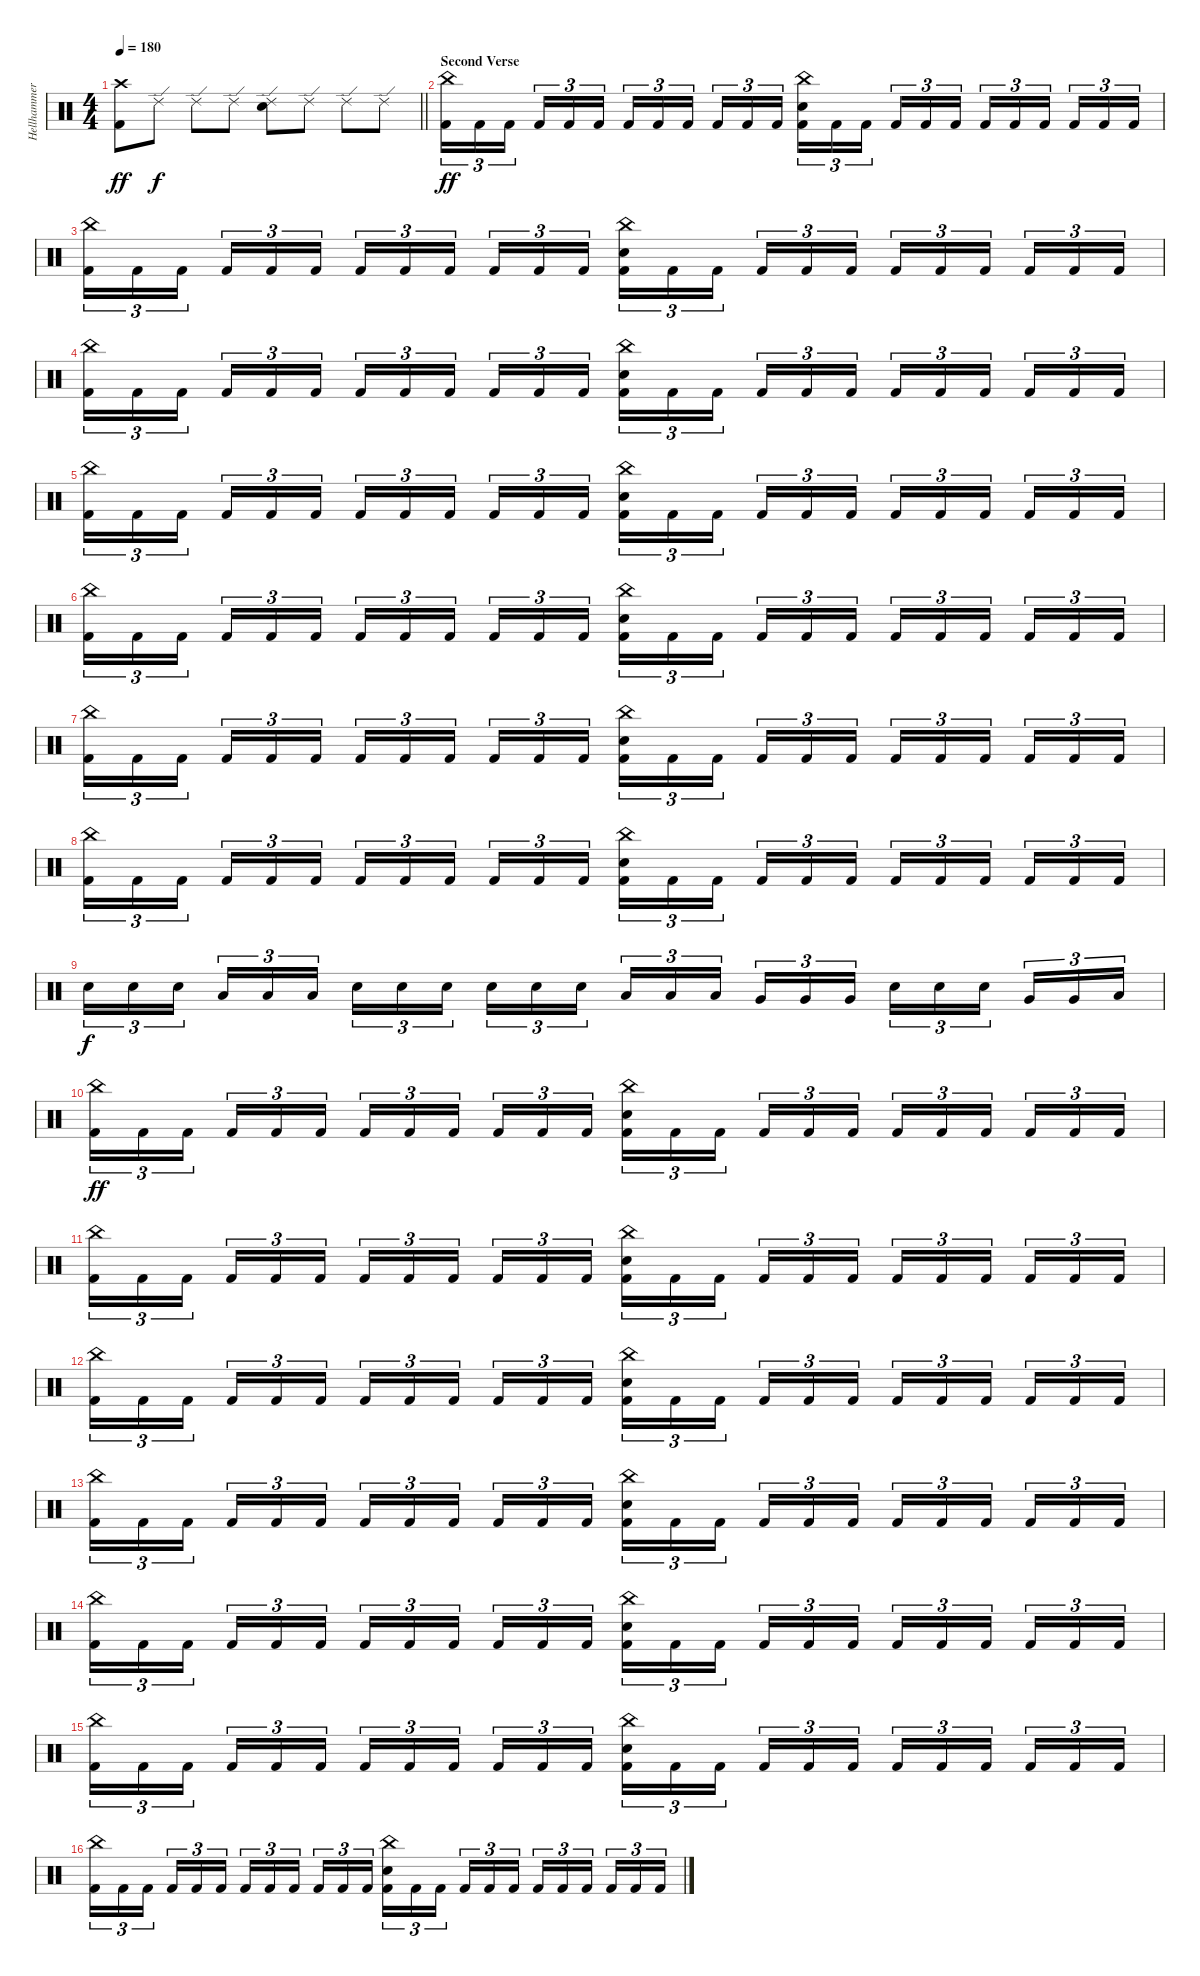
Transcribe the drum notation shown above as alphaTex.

\track ("Hellhammer" "Hellhammer") {instrument percussion}
\staff {score}
\articulation defaults
\ts (4 4)
\tempo 180
\clef neutral
\barLineRight lightlight
\ks c
("Crash high (hit)" "Kick (hit) 2").8{dy ff} "Ride (edge) 2".8{dy f} "Ride (edge) 2".8 "Ride (edge) 2".8 ("Ride (edge) 2" "Electric Snare (hit)").8 "Ride (edge) 2".8 "Ride (edge) 2".8 "Ride (edge) 2".8 |
\section ("" "Second Verse")
("China (hit)" "Kick (hit) 2").16{tu (3 2) dy ff} "Kick (hit) 2".16{tu (3 2)} "Kick (hit) 2".16{tu (3 2) beam splitsecondary} "Kick (hit) 2".16{tu (3 2)} "Kick (hit) 2".16{tu (3 2)} "Kick (hit) 2".16{tu (3 2)} "Kick (hit) 2".16{tu (3 2)} "Kick (hit) 2".16{tu (3 2)} "Kick (hit) 2".16{tu (3 2) beam splitsecondary} "Kick (hit) 2".16{tu (3 2)} "Kick (hit) 2".16{tu (3 2)} "Kick (hit) 2".16{tu (3 2)} ("China (hit)" "Electric Snare (hit)" "Kick (hit) 2").16{tu (3 2)} "Kick (hit) 2".16{tu (3 2)} "Kick (hit) 2".16{tu (3 2) beam splitsecondary} "Kick (hit) 2".16{tu (3 2)} "Kick (hit) 2".16{tu (3 2)} "Kick (hit) 2".16{tu (3 2)} "Kick (hit) 2".16{tu (3 2)} "Kick (hit) 2".16{tu (3 2)} "Kick (hit) 2".16{tu (3 2) beam splitsecondary} "Kick (hit) 2".16{tu (3 2)} "Kick (hit) 2".16{tu (3 2)} "Kick (hit) 2".16{tu (3 2)} |
("China (hit)" "Kick (hit) 2").16{tu (3 2)} "Kick (hit) 2".16{tu (3 2)} "Kick (hit) 2".16{tu (3 2) beam splitsecondary} "Kick (hit) 2".16{tu (3 2)} "Kick (hit) 2".16{tu (3 2)} "Kick (hit) 2".16{tu (3 2)} "Kick (hit) 2".16{tu (3 2)} "Kick (hit) 2".16{tu (3 2)} "Kick (hit) 2".16{tu (3 2) beam splitsecondary} "Kick (hit) 2".16{tu (3 2)} "Kick (hit) 2".16{tu (3 2)} "Kick (hit) 2".16{tu (3 2)} ("China (hit)" "Electric Snare (hit)" "Kick (hit) 2").16{tu (3 2)} "Kick (hit) 2".16{tu (3 2)} "Kick (hit) 2".16{tu (3 2) beam splitsecondary} "Kick (hit) 2".16{tu (3 2)} "Kick (hit) 2".16{tu (3 2)} "Kick (hit) 2".16{tu (3 2)} "Kick (hit) 2".16{tu (3 2)} "Kick (hit) 2".16{tu (3 2)} "Kick (hit) 2".16{tu (3 2) beam splitsecondary} "Kick (hit) 2".16{tu (3 2)} "Kick (hit) 2".16{tu (3 2)} "Kick (hit) 2".16{tu (3 2)} |
("China (hit)" "Kick (hit) 2").16{tu (3 2)} "Kick (hit) 2".16{tu (3 2)} "Kick (hit) 2".16{tu (3 2) beam splitsecondary} "Kick (hit) 2".16{tu (3 2)} "Kick (hit) 2".16{tu (3 2)} "Kick (hit) 2".16{tu (3 2)} "Kick (hit) 2".16{tu (3 2)} "Kick (hit) 2".16{tu (3 2)} "Kick (hit) 2".16{tu (3 2) beam splitsecondary} "Kick (hit) 2".16{tu (3 2)} "Kick (hit) 2".16{tu (3 2)} "Kick (hit) 2".16{tu (3 2)} ("China (hit)" "Electric Snare (hit)" "Kick (hit) 2").16{tu (3 2)} "Kick (hit) 2".16{tu (3 2)} "Kick (hit) 2".16{tu (3 2) beam splitsecondary} "Kick (hit) 2".16{tu (3 2)} "Kick (hit) 2".16{tu (3 2)} "Kick (hit) 2".16{tu (3 2)} "Kick (hit) 2".16{tu (3 2)} "Kick (hit) 2".16{tu (3 2)} "Kick (hit) 2".16{tu (3 2) beam splitsecondary} "Kick (hit) 2".16{tu (3 2)} "Kick (hit) 2".16{tu (3 2)} "Kick (hit) 2".16{tu (3 2)} |
("China (hit)" "Kick (hit) 2").16{tu (3 2)} "Kick (hit) 2".16{tu (3 2)} "Kick (hit) 2".16{tu (3 2) beam splitsecondary} "Kick (hit) 2".16{tu (3 2)} "Kick (hit) 2".16{tu (3 2)} "Kick (hit) 2".16{tu (3 2)} "Kick (hit) 2".16{tu (3 2)} "Kick (hit) 2".16{tu (3 2)} "Kick (hit) 2".16{tu (3 2) beam splitsecondary} "Kick (hit) 2".16{tu (3 2)} "Kick (hit) 2".16{tu (3 2)} "Kick (hit) 2".16{tu (3 2)} ("China (hit)" "Electric Snare (hit)" "Kick (hit) 2").16{tu (3 2)} "Kick (hit) 2".16{tu (3 2)} "Kick (hit) 2".16{tu (3 2) beam splitsecondary} "Kick (hit) 2".16{tu (3 2)} "Kick (hit) 2".16{tu (3 2)} "Kick (hit) 2".16{tu (3 2)} "Kick (hit) 2".16{tu (3 2)} "Kick (hit) 2".16{tu (3 2)} "Kick (hit) 2".16{tu (3 2) beam splitsecondary} "Kick (hit) 2".16{tu (3 2)} "Kick (hit) 2".16{tu (3 2)} "Kick (hit) 2".16{tu (3 2)} |
("China (hit)" "Kick (hit) 2").16{tu (3 2)} "Kick (hit) 2".16{tu (3 2)} "Kick (hit) 2".16{tu (3 2) beam splitsecondary} "Kick (hit) 2".16{tu (3 2)} "Kick (hit) 2".16{tu (3 2)} "Kick (hit) 2".16{tu (3 2)} "Kick (hit) 2".16{tu (3 2)} "Kick (hit) 2".16{tu (3 2)} "Kick (hit) 2".16{tu (3 2) beam splitsecondary} "Kick (hit) 2".16{tu (3 2)} "Kick (hit) 2".16{tu (3 2)} "Kick (hit) 2".16{tu (3 2)} ("China (hit)" "Electric Snare (hit)" "Kick (hit) 2").16{tu (3 2)} "Kick (hit) 2".16{tu (3 2)} "Kick (hit) 2".16{tu (3 2) beam splitsecondary} "Kick (hit) 2".16{tu (3 2)} "Kick (hit) 2".16{tu (3 2)} "Kick (hit) 2".16{tu (3 2)} "Kick (hit) 2".16{tu (3 2)} "Kick (hit) 2".16{tu (3 2)} "Kick (hit) 2".16{tu (3 2) beam splitsecondary} "Kick (hit) 2".16{tu (3 2)} "Kick (hit) 2".16{tu (3 2)} "Kick (hit) 2".16{tu (3 2)} |
("China (hit)" "Kick (hit) 2").16{tu (3 2)} "Kick (hit) 2".16{tu (3 2)} "Kick (hit) 2".16{tu (3 2) beam splitsecondary} "Kick (hit) 2".16{tu (3 2)} "Kick (hit) 2".16{tu (3 2)} "Kick (hit) 2".16{tu (3 2)} "Kick (hit) 2".16{tu (3 2)} "Kick (hit) 2".16{tu (3 2)} "Kick (hit) 2".16{tu (3 2) beam splitsecondary} "Kick (hit) 2".16{tu (3 2)} "Kick (hit) 2".16{tu (3 2)} "Kick (hit) 2".16{tu (3 2)} ("China (hit)" "Electric Snare (hit)" "Kick (hit) 2").16{tu (3 2)} "Kick (hit) 2".16{tu (3 2)} "Kick (hit) 2".16{tu (3 2) beam splitsecondary} "Kick (hit) 2".16{tu (3 2)} "Kick (hit) 2".16{tu (3 2)} "Kick (hit) 2".16{tu (3 2)} "Kick (hit) 2".16{tu (3 2)} "Kick (hit) 2".16{tu (3 2)} "Kick (hit) 2".16{tu (3 2) beam splitsecondary} "Kick (hit) 2".16{tu (3 2)} "Kick (hit) 2".16{tu (3 2)} "Kick (hit) 2".16{tu (3 2)} |
("China (hit)" "Kick (hit) 2").16{tu (3 2)} "Kick (hit) 2".16{tu (3 2)} "Kick (hit) 2".16{tu (3 2) beam splitsecondary} "Kick (hit) 2".16{tu (3 2)} "Kick (hit) 2".16{tu (3 2)} "Kick (hit) 2".16{tu (3 2)} "Kick (hit) 2".16{tu (3 2)} "Kick (hit) 2".16{tu (3 2)} "Kick (hit) 2".16{tu (3 2) beam splitsecondary} "Kick (hit) 2".16{tu (3 2)} "Kick (hit) 2".16{tu (3 2)} "Kick (hit) 2".16{tu (3 2)} ("China (hit)" "Electric Snare (hit)" "Kick (hit) 2").16{tu (3 2)} "Kick (hit) 2".16{tu (3 2)} "Kick (hit) 2".16{tu (3 2) beam splitsecondary} "Kick (hit) 2".16{tu (3 2)} "Kick (hit) 2".16{tu (3 2)} "Kick (hit) 2".16{tu (3 2)} "Kick (hit) 2".16{tu (3 2)} "Kick (hit) 2".16{tu (3 2)} "Kick (hit) 2".16{tu (3 2) beam splitsecondary} "Kick (hit) 2".16{tu (3 2)} "Kick (hit) 2".16{tu (3 2)} "Kick (hit) 2".16{tu (3 2)} |
"Electric Snare (hit)".16{tu (3 2) dy f} "Electric Snare (hit)".16{tu (3 2)} "Electric Snare (hit)".16{tu (3 2) beam splitsecondary} "Low Tom (hit)".16{tu (3 2)} "Low Tom (hit)".16{tu (3 2)} "Low Tom (hit)".16{tu (3 2)} "Electric Snare (hit)".16{tu (3 2)} "Electric Snare (hit)".16{tu (3 2)} "Electric Snare (hit)".16{tu (3 2) beam splitsecondary} "Electric Snare (hit)".16{tu (3 2)} "Electric Snare (hit)".16{tu (3 2)} "Electric Snare (hit)".16{tu (3 2)} "Low Tom (hit)".16{tu (3 2)} "Low Tom (hit)".16{tu (3 2)} "Low Tom (hit)".16{tu (3 2) beam splitsecondary} "Very Low Tom (hit)".16{tu (3 2)} "Very Low Tom (hit)".16{tu (3 2)} "Very Low Tom (hit)".16{tu (3 2)} "Electric Snare (hit)".16{tu (3 2)} "Electric Snare (hit)".16{tu (3 2)} "Electric Snare (hit)".16{tu (3 2) beam splitsecondary} "Very Low Tom (hit)".16{tu (3 2)} "Very Low Tom (hit)".16{tu (3 2)} "Low Floor Tom (hit)".16{tu (3 2)} |
("China (hit)" "Kick (hit) 2").16{tu (3 2) dy ff} "Kick (hit) 2".16{tu (3 2)} "Kick (hit) 2".16{tu (3 2) beam splitsecondary} "Kick (hit) 2".16{tu (3 2)} "Kick (hit) 2".16{tu (3 2)} "Kick (hit) 2".16{tu (3 2)} "Kick (hit) 2".16{tu (3 2)} "Kick (hit) 2".16{tu (3 2)} "Kick (hit) 2".16{tu (3 2) beam splitsecondary} "Kick (hit) 2".16{tu (3 2)} "Kick (hit) 2".16{tu (3 2)} "Kick (hit) 2".16{tu (3 2)} ("China (hit)" "Electric Snare (hit)" "Kick (hit) 2").16{tu (3 2)} "Kick (hit) 2".16{tu (3 2)} "Kick (hit) 2".16{tu (3 2) beam splitsecondary} "Kick (hit) 2".16{tu (3 2)} "Kick (hit) 2".16{tu (3 2)} "Kick (hit) 2".16{tu (3 2)} "Kick (hit) 2".16{tu (3 2)} "Kick (hit) 2".16{tu (3 2)} "Kick (hit) 2".16{tu (3 2) beam splitsecondary} "Kick (hit) 2".16{tu (3 2)} "Kick (hit) 2".16{tu (3 2)} "Kick (hit) 2".16{tu (3 2)} |
("China (hit)" "Kick (hit) 2").16{tu (3 2)} "Kick (hit) 2".16{tu (3 2)} "Kick (hit) 2".16{tu (3 2) beam splitsecondary} "Kick (hit) 2".16{tu (3 2)} "Kick (hit) 2".16{tu (3 2)} "Kick (hit) 2".16{tu (3 2)} "Kick (hit) 2".16{tu (3 2)} "Kick (hit) 2".16{tu (3 2)} "Kick (hit) 2".16{tu (3 2) beam splitsecondary} "Kick (hit) 2".16{tu (3 2)} "Kick (hit) 2".16{tu (3 2)} "Kick (hit) 2".16{tu (3 2)} ("China (hit)" "Electric Snare (hit)" "Kick (hit) 2").16{tu (3 2)} "Kick (hit) 2".16{tu (3 2)} "Kick (hit) 2".16{tu (3 2) beam splitsecondary} "Kick (hit) 2".16{tu (3 2)} "Kick (hit) 2".16{tu (3 2)} "Kick (hit) 2".16{tu (3 2)} "Kick (hit) 2".16{tu (3 2)} "Kick (hit) 2".16{tu (3 2)} "Kick (hit) 2".16{tu (3 2) beam splitsecondary} "Kick (hit) 2".16{tu (3 2)} "Kick (hit) 2".16{tu (3 2)} "Kick (hit) 2".16{tu (3 2)} |
("China (hit)" "Kick (hit) 2").16{tu (3 2)} "Kick (hit) 2".16{tu (3 2)} "Kick (hit) 2".16{tu (3 2) beam splitsecondary} "Kick (hit) 2".16{tu (3 2)} "Kick (hit) 2".16{tu (3 2)} "Kick (hit) 2".16{tu (3 2)} "Kick (hit) 2".16{tu (3 2)} "Kick (hit) 2".16{tu (3 2)} "Kick (hit) 2".16{tu (3 2) beam splitsecondary} "Kick (hit) 2".16{tu (3 2)} "Kick (hit) 2".16{tu (3 2)} "Kick (hit) 2".16{tu (3 2)} ("China (hit)" "Electric Snare (hit)" "Kick (hit) 2").16{tu (3 2)} "Kick (hit) 2".16{tu (3 2)} "Kick (hit) 2".16{tu (3 2) beam splitsecondary} "Kick (hit) 2".16{tu (3 2)} "Kick (hit) 2".16{tu (3 2)} "Kick (hit) 2".16{tu (3 2)} "Kick (hit) 2".16{tu (3 2)} "Kick (hit) 2".16{tu (3 2)} "Kick (hit) 2".16{tu (3 2) beam splitsecondary} "Kick (hit) 2".16{tu (3 2)} "Kick (hit) 2".16{tu (3 2)} "Kick (hit) 2".16{tu (3 2)} |
("China (hit)" "Kick (hit) 2").16{tu (3 2)} "Kick (hit) 2".16{tu (3 2)} "Kick (hit) 2".16{tu (3 2) beam splitsecondary} "Kick (hit) 2".16{tu (3 2)} "Kick (hit) 2".16{tu (3 2)} "Kick (hit) 2".16{tu (3 2)} "Kick (hit) 2".16{tu (3 2)} "Kick (hit) 2".16{tu (3 2)} "Kick (hit) 2".16{tu (3 2) beam splitsecondary} "Kick (hit) 2".16{tu (3 2)} "Kick (hit) 2".16{tu (3 2)} "Kick (hit) 2".16{tu (3 2)} ("China (hit)" "Electric Snare (hit)" "Kick (hit) 2").16{tu (3 2)} "Kick (hit) 2".16{tu (3 2)} "Kick (hit) 2".16{tu (3 2) beam splitsecondary} "Kick (hit) 2".16{tu (3 2)} "Kick (hit) 2".16{tu (3 2)} "Kick (hit) 2".16{tu (3 2)} "Kick (hit) 2".16{tu (3 2)} "Kick (hit) 2".16{tu (3 2)} "Kick (hit) 2".16{tu (3 2) beam splitsecondary} "Kick (hit) 2".16{tu (3 2)} "Kick (hit) 2".16{tu (3 2)} "Kick (hit) 2".16{tu (3 2)} |
("China (hit)" "Kick (hit) 2").16{tu (3 2)} "Kick (hit) 2".16{tu (3 2)} "Kick (hit) 2".16{tu (3 2) beam splitsecondary} "Kick (hit) 2".16{tu (3 2)} "Kick (hit) 2".16{tu (3 2)} "Kick (hit) 2".16{tu (3 2)} "Kick (hit) 2".16{tu (3 2)} "Kick (hit) 2".16{tu (3 2)} "Kick (hit) 2".16{tu (3 2) beam splitsecondary} "Kick (hit) 2".16{tu (3 2)} "Kick (hit) 2".16{tu (3 2)} "Kick (hit) 2".16{tu (3 2)} ("China (hit)" "Electric Snare (hit)" "Kick (hit) 2").16{tu (3 2)} "Kick (hit) 2".16{tu (3 2)} "Kick (hit) 2".16{tu (3 2) beam splitsecondary} "Kick (hit) 2".16{tu (3 2)} "Kick (hit) 2".16{tu (3 2)} "Kick (hit) 2".16{tu (3 2)} "Kick (hit) 2".16{tu (3 2)} "Kick (hit) 2".16{tu (3 2)} "Kick (hit) 2".16{tu (3 2) beam splitsecondary} "Kick (hit) 2".16{tu (3 2)} "Kick (hit) 2".16{tu (3 2)} "Kick (hit) 2".16{tu (3 2)} |
("China (hit)" "Kick (hit) 2").16{tu (3 2)} "Kick (hit) 2".16{tu (3 2)} "Kick (hit) 2".16{tu (3 2) beam splitsecondary} "Kick (hit) 2".16{tu (3 2)} "Kick (hit) 2".16{tu (3 2)} "Kick (hit) 2".16{tu (3 2)} "Kick (hit) 2".16{tu (3 2)} "Kick (hit) 2".16{tu (3 2)} "Kick (hit) 2".16{tu (3 2) beam splitsecondary} "Kick (hit) 2".16{tu (3 2)} "Kick (hit) 2".16{tu (3 2)} "Kick (hit) 2".16{tu (3 2)} ("China (hit)" "Electric Snare (hit)" "Kick (hit) 2").16{tu (3 2)} "Kick (hit) 2".16{tu (3 2)} "Kick (hit) 2".16{tu (3 2) beam splitsecondary} "Kick (hit) 2".16{tu (3 2)} "Kick (hit) 2".16{tu (3 2)} "Kick (hit) 2".16{tu (3 2)} "Kick (hit) 2".16{tu (3 2)} "Kick (hit) 2".16{tu (3 2)} "Kick (hit) 2".16{tu (3 2) beam splitsecondary} "Kick (hit) 2".16{tu (3 2)} "Kick (hit) 2".16{tu (3 2)} "Kick (hit) 2".16{tu (3 2)} |
("China (hit)" "Kick (hit) 2").16{tu (3 2)} "Kick (hit) 2".16{tu (3 2)} "Kick (hit) 2".16{tu (3 2) beam splitsecondary} "Kick (hit) 2".16{tu (3 2)} "Kick (hit) 2".16{tu (3 2)} "Kick (hit) 2".16{tu (3 2)} "Kick (hit) 2".16{tu (3 2)} "Kick (hit) 2".16{tu (3 2)} "Kick (hit) 2".16{tu (3 2) beam splitsecondary} "Kick (hit) 2".16{tu (3 2)} "Kick (hit) 2".16{tu (3 2)} "Kick (hit) 2".16{tu (3 2)} ("China (hit)" "Electric Snare (hit)" "Kick (hit) 2").16{tu (3 2)} "Kick (hit) 2".16{tu (3 2)} "Kick (hit) 2".16{tu (3 2) beam splitsecondary} "Kick (hit) 2".16{tu (3 2)} "Kick (hit) 2".16{tu (3 2)} "Kick (hit) 2".16{tu (3 2)} "Kick (hit) 2".16{tu (3 2)} "Kick (hit) 2".16{tu (3 2)} "Kick (hit) 2".16{tu (3 2) beam splitsecondary} "Kick (hit) 2".16{tu (3 2)} "Kick (hit) 2".16{tu (3 2)} "Kick (hit) 2".16{tu (3 2)}
